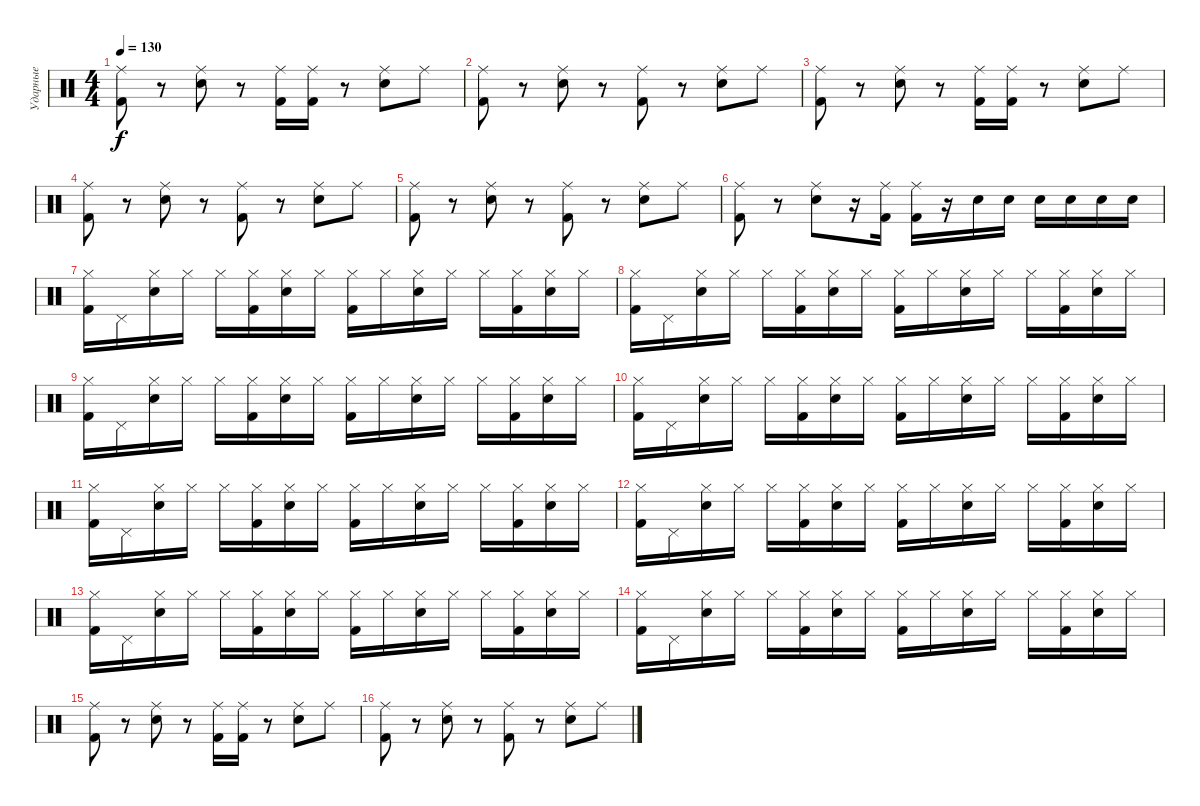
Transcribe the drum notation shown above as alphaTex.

\track ("Ударные" "Ударные") {instrument percussion}
\staff {score}
\articulation defaults
\ts (4 4)
\tempo 130
\clef neutral
\ks c
("Kick (hit) 2" "Ride (middle)").8{dy f} r.8 ("Electric Snare (hit)" "Ride (middle)").8 r.8 ("Kick (hit) 2" "Ride (middle)").16 ("Kick (hit) 2" "Ride (middle)").16 r.8 ("Electric Snare (hit)" "Ride (middle)").8 "Ride (middle)".8 |
("Kick (hit) 2" "Ride (middle)").8 r.8 ("Electric Snare (hit)" "Ride (middle)").8 r.8 ("Kick (hit) 2" "Ride (middle)").8 r.8 ("Electric Snare (hit)" "Ride (middle)").8 "Ride (middle)".8 |
("Kick (hit) 2" "Ride (middle)").8 r.8 ("Electric Snare (hit)" "Ride (middle)").8 r.8 ("Kick (hit) 2" "Ride (middle)").16 ("Kick (hit) 2" "Ride (middle)").16 r.8 ("Electric Snare (hit)" "Ride (middle)").8 "Ride (middle)".8 |
("Kick (hit) 2" "Ride (middle)").8 r.8 ("Electric Snare (hit)" "Ride (middle)").8 r.8 ("Kick (hit) 2" "Ride (middle)").8 r.8 ("Electric Snare (hit)" "Ride (middle)").8 "Ride (middle)".8 |
("Kick (hit) 2" "Ride (middle)").8 r.8 ("Electric Snare (hit)" "Ride (middle)").8 r.8 ("Kick (hit) 2" "Ride (middle)").8 r.8 ("Electric Snare (hit)" "Ride (middle)").8 "Ride (middle)".8 |
("Kick (hit) 2" "Ride (middle)").8 r.8 ("Electric Snare (hit)" "Ride (middle)").8 r.16 ("Kick (hit) 2" "Ride (middle)").16 ("Kick (hit) 2" "Ride (middle)").16 r.16 "Electric Snare (hit)".16 "Electric Snare (hit)".16 "Electric Snare (hit)".16 "Electric Snare (hit)".16 "Electric Snare (hit)".16 "Electric Snare (hit)".16 |
("Kick (hit) 2" "Hi-Hat (closed)").16 "Pedal Hi-Hat (hit)".16 ("Electric Snare (hit)" "Hi-Hat (closed)").16 "Hi-Hat (closed)".16 "Hi-Hat (closed)".16 ("Kick (hit) 2" "Hi-Hat (closed)").16 ("Electric Snare (hit)" "Hi-Hat (closed)").16 "Hi-Hat (closed)".16 ("Kick (hit) 2" "Hi-Hat (closed)").16 "Hi-Hat (closed)".16 ("Electric Snare (hit)" "Hi-Hat (closed)").16 "Hi-Hat (closed)".16 "Hi-Hat (closed)".16 ("Kick (hit) 2" "Hi-Hat (closed)").16 ("Electric Snare (hit)" "Hi-Hat (closed)").16 "Hi-Hat (closed)".16 |
("Kick (hit) 2" "Hi-Hat (closed)").16 "Pedal Hi-Hat (hit)".16 ("Electric Snare (hit)" "Hi-Hat (closed)").16 "Hi-Hat (closed)".16 "Hi-Hat (closed)".16 ("Kick (hit) 2" "Hi-Hat (closed)").16 ("Electric Snare (hit)" "Hi-Hat (closed)").16 "Hi-Hat (closed)".16 ("Kick (hit) 2" "Hi-Hat (closed)").16 "Hi-Hat (closed)".16 ("Electric Snare (hit)" "Hi-Hat (closed)").16 "Hi-Hat (closed)".16 "Hi-Hat (closed)".16 ("Kick (hit) 2" "Hi-Hat (closed)").16 ("Electric Snare (hit)" "Hi-Hat (closed)").16 "Hi-Hat (closed)".16 |
("Kick (hit) 2" "Hi-Hat (closed)").16 "Pedal Hi-Hat (hit)".16 ("Electric Snare (hit)" "Hi-Hat (closed)").16 "Hi-Hat (closed)".16 "Hi-Hat (closed)".16 ("Kick (hit) 2" "Hi-Hat (closed)").16 ("Electric Snare (hit)" "Hi-Hat (closed)").16 "Hi-Hat (closed)".16 ("Kick (hit) 2" "Hi-Hat (closed)").16 "Hi-Hat (closed)".16 ("Electric Snare (hit)" "Hi-Hat (closed)").16 "Hi-Hat (closed)".16 "Hi-Hat (closed)".16 ("Kick (hit) 2" "Hi-Hat (closed)").16 ("Electric Snare (hit)" "Hi-Hat (closed)").16 "Hi-Hat (closed)".16 |
("Kick (hit) 2" "Hi-Hat (closed)").16 "Pedal Hi-Hat (hit)".16 ("Electric Snare (hit)" "Hi-Hat (closed)").16 "Hi-Hat (closed)".16 "Hi-Hat (closed)".16 ("Kick (hit) 2" "Hi-Hat (closed)").16 ("Electric Snare (hit)" "Hi-Hat (closed)").16 "Hi-Hat (closed)".16 ("Kick (hit) 2" "Hi-Hat (closed)").16 "Hi-Hat (closed)".16 ("Electric Snare (hit)" "Hi-Hat (closed)").16 "Hi-Hat (closed)".16 "Hi-Hat (closed)".16 ("Kick (hit) 2" "Hi-Hat (closed)").16 ("Electric Snare (hit)" "Hi-Hat (closed)").16 "Hi-Hat (closed)".16 |
("Kick (hit) 2" "Hi-Hat (closed)").16 "Pedal Hi-Hat (hit)".16 ("Electric Snare (hit)" "Hi-Hat (closed)").16 "Hi-Hat (closed)".16 "Hi-Hat (closed)".16 ("Kick (hit) 2" "Hi-Hat (closed)").16 ("Electric Snare (hit)" "Hi-Hat (closed)").16 "Hi-Hat (closed)".16 ("Kick (hit) 2" "Hi-Hat (closed)").16 "Hi-Hat (closed)".16 ("Electric Snare (hit)" "Hi-Hat (closed)").16 "Hi-Hat (closed)".16 "Hi-Hat (closed)".16 ("Kick (hit) 2" "Hi-Hat (closed)").16 ("Electric Snare (hit)" "Hi-Hat (closed)").16 "Hi-Hat (closed)".16 |
("Kick (hit) 2" "Hi-Hat (closed)").16 "Pedal Hi-Hat (hit)".16 ("Electric Snare (hit)" "Hi-Hat (closed)").16 "Hi-Hat (closed)".16 "Hi-Hat (closed)".16 ("Kick (hit) 2" "Hi-Hat (closed)").16 ("Electric Snare (hit)" "Hi-Hat (closed)").16 "Hi-Hat (closed)".16 ("Kick (hit) 2" "Hi-Hat (closed)").16 "Hi-Hat (closed)".16 ("Electric Snare (hit)" "Hi-Hat (closed)").16 "Hi-Hat (closed)".16 "Hi-Hat (closed)".16 ("Kick (hit) 2" "Hi-Hat (closed)").16 ("Electric Snare (hit)" "Hi-Hat (closed)").16 "Hi-Hat (closed)".16 |
("Kick (hit) 2" "Hi-Hat (closed)").16 "Pedal Hi-Hat (hit)".16 ("Electric Snare (hit)" "Hi-Hat (closed)").16 "Hi-Hat (closed)".16 "Hi-Hat (closed)".16 ("Kick (hit) 2" "Hi-Hat (closed)").16 ("Electric Snare (hit)" "Hi-Hat (closed)").16 "Hi-Hat (closed)".16 ("Kick (hit) 2" "Hi-Hat (closed)").16 "Hi-Hat (closed)".16 ("Electric Snare (hit)" "Hi-Hat (closed)").16 "Hi-Hat (closed)".16 "Hi-Hat (closed)".16 ("Kick (hit) 2" "Hi-Hat (closed)").16 ("Electric Snare (hit)" "Hi-Hat (closed)").16 "Hi-Hat (closed)".16 |
("Kick (hit) 2" "Hi-Hat (closed)").16 "Pedal Hi-Hat (hit)".16 ("Electric Snare (hit)" "Hi-Hat (closed)").16 "Hi-Hat (closed)".16 "Hi-Hat (closed)".16 ("Kick (hit) 2" "Hi-Hat (closed)").16 ("Electric Snare (hit)" "Hi-Hat (closed)").16 "Hi-Hat (closed)".16 ("Kick (hit) 2" "Hi-Hat (closed)").16 "Hi-Hat (closed)".16 ("Electric Snare (hit)" "Hi-Hat (closed)").16 "Hi-Hat (closed)".16 "Hi-Hat (closed)".16 ("Kick (hit) 2" "Hi-Hat (closed)").16 ("Electric Snare (hit)" "Hi-Hat (closed)").16 "Hi-Hat (closed)".16 |
("Kick (hit) 2" "Ride (middle)").8 r.8 ("Electric Snare (hit)" "Ride (middle)").8 r.8 ("Kick (hit) 2" "Ride (middle)").16 ("Kick (hit) 2" "Ride (middle)").16 r.8 ("Electric Snare (hit)" "Ride (middle)").8 "Ride (middle)".8 |
("Kick (hit) 2" "Ride (middle)").8 r.8 ("Electric Snare (hit)" "Ride (middle)").8 r.8 ("Kick (hit) 2" "Ride (middle)").8 r.8 ("Electric Snare (hit)" "Ride (middle)").8 "Ride (middle)".8
